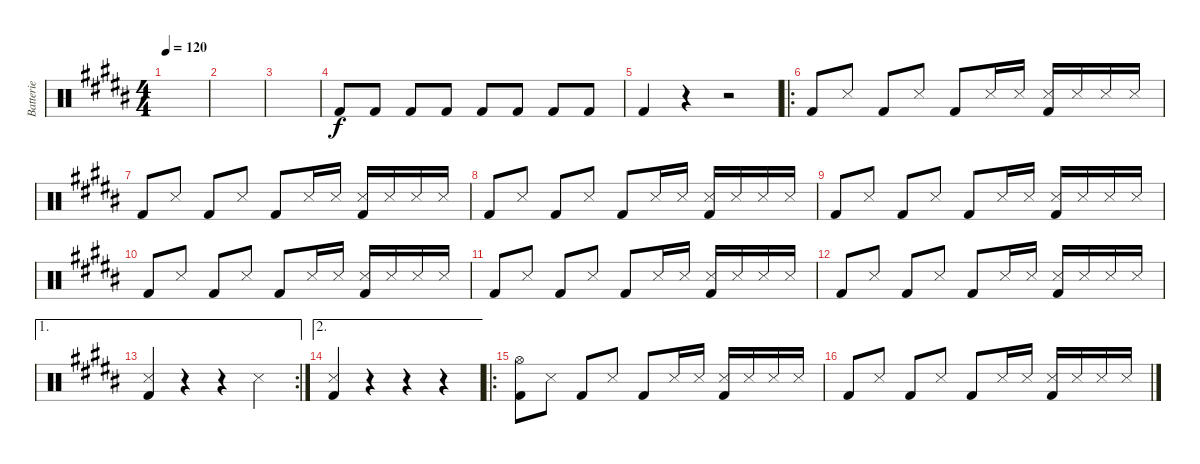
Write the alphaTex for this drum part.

\track ("Batterie" "Batterie") {instrument percussion}
\staff {score}
\articulation defaults
\ts (4 4)
\tempo 120
\clef neutral
\ks b
|
|
|
"Kick (hit) 2".8 "Kick (hit) 2".8 "Kick (hit) 2".8 "Kick (hit) 2".8 "Kick (hit) 2".8 "Kick (hit) 2".8 "Kick (hit) 2".8 "Kick (hit) 2".8 |
"Kick (hit) 2".4 r.4 r.2 |
\ro "Kick (hit) 2".8 "Snare (side stick) 3".8 "Kick (hit) 2".8 "Snare (side stick) 3".8 "Kick (hit) 2".8 "Snare (side stick) 3".16 "Snare (side stick) 3".16
("Snare (side stick) 3" "Kick (hit) 2").16 "Snare (side stick) 3".16 "Snare (side stick) 3".16 "Snare (side stick) 3".16 |
"Kick (hit) 2".8 "Snare (side stick) 3".8 "Kick (hit) 2".8 "Snare (side stick) 3".8 "Kick (hit) 2".8 "Snare (side stick) 3".16 "Snare (side stick) 3".16 ("Snare (side stick) 3" "Kick (hit) 2").16 "Snare (side stick) 3".16 "Snare (side stick) 3".16 "Snare (side stick) 3".16 |
"Kick (hit) 2".8 "Snare (side stick) 3".8 "Kick (hit) 2".8 "Snare (side stick) 3".8 "Kick (hit) 2".8 "Snare (side stick) 3".16 "Snare (side stick) 3".16 ("Snare (side stick) 3" "Kick (hit) 2").16 "Snare (side stick) 3".16 "Snare (side stick) 3".16 "Snare (side stick) 3".16 |
"Kick (hit) 2".8 "Snare (side stick) 3".8 "Kick (hit) 2".8 "Snare (side stick) 3".8 "Kick (hit) 2".8 "Snare (side stick) 3".16 "Snare (side stick) 3".16 ("Snare (side stick) 3" "Kick (hit) 2").16 "Snare (side stick) 3".16 "Snare (side stick) 3".16 "Snare (side stick) 3".16 |
"Kick (hit) 2".8 "Snare (side stick) 3".8 "Kick (hit) 2".8 "Snare (side stick) 3".8 "Kick (hit) 2".8 "Snare (side stick) 3".16 "Snare (side stick) 3".16 ("Snare (side stick) 3" "Kick (hit) 2").16 "Snare (side stick) 3".16 "Snare (side stick) 3".16 "Snare (side stick) 3".16 |
"Kick (hit) 2".8 "Snare (side stick) 3".8 "Kick (hit) 2".8 "Snare (side stick) 3".8 "Kick (hit) 2".8 "Snare (side stick) 3".16 "Snare (side stick) 3".16 ("Snare (side stick) 3" "Kick (hit) 2").16 "Snare (side stick) 3".16 "Snare (side stick) 3".16 "Snare (side stick) 3".16 |
"Kick (hit) 2".8 "Snare (side stick) 3".8 "Kick (hit) 2".8 "Snare (side stick) 3".8 "Kick (hit) 2".8 "Snare (side stick) 3".16 "Snare (side stick) 3".16 ("Snare (side stick) 3" "Kick (hit) 2").16 "Snare (side stick) 3".16 "Snare (side stick) 3".16 "Snare (side stick) 3".16 |
\ae 1
\rc 2
("Snare (side stick) 3" "Kick (hit) 2").4 r.4 r.4 "Snare (side stick) 3".4 |
\ae 2
("Snare (side stick) 3" "Kick (hit) 2").4 r.4 r.4 r.4 |
\ro
("Hi-Hat (open)" "Kick (hit) 2").8 "Snare (side stick) 3".8 "Kick (hit) 2".8 "Snare (side stick) 3".8 "Kick (hit) 2".8 "Snare (side stick) 3".16 "Snare (side stick) 3".16 ("Snare (side stick) 3" "Kick (hit) 2").16 "Snare (side stick) 3".16 "Snare (side stick) 3".16 "Snare (side stick) 3".16 |
"Kick (hit) 2".8 "Snare (side stick) 3".8 "Kick (hit) 2".8 "Snare (side stick) 3".8 "Kick (hit) 2".8 "Snare (side stick) 3".16 "Snare (side stick) 3".16 ("Snare (side stick) 3" "Kick (hit) 2").16 "Snare (side stick) 3".16 "Snare (side stick) 3".16 "Snare (side stick) 3".16
